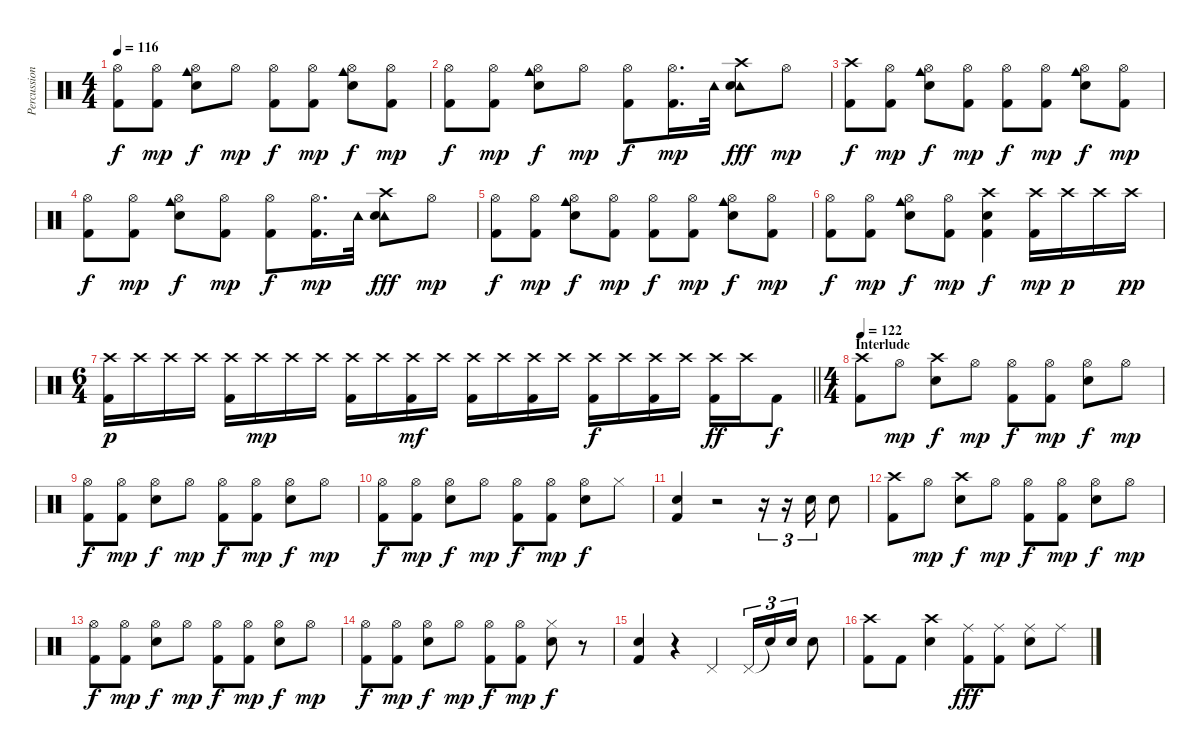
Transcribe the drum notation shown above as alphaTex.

\track ("Percussion (Peter)" "Percussion") {instrument percussion}
\staff {score}
\articulation defaults
\ts (4 4)
\tempo 116
\clef neutral
\ks c
("Hi-Hat (open)" "Kick (hit) 2").8{dy f} ("Hi-Hat (open)" "Kick (hit) 2").8{dy mp} ("Cowbell medium (hit)" "Hi-Hat (open)" "Snare (hit) 2").8{dy f} "Hi-Hat (open)".8{dy mp} ("Hi-Hat (open)" "Kick (hit) 2").8{dy f} ("Hi-Hat (open)" "Kick (hit) 2").8{dy mp} ("Cowbell medium (hit)" "Hi-Hat (open)" "Snare (hit) 2").8{dy f} ("Hi-Hat (open)" "Kick (hit) 2").8{dy mp} |
("Hi-Hat (open)" "Kick (hit) 2").8{dy f} ("Hi-Hat (open)" "Kick (hit) 2").8{dy mp} ("Cowbell medium (hit)" "Hi-Hat (open)" "Snare (hit) 2").8{dy f} "Hi-Hat (open)".8{dy mp} ("Hi-Hat (open)" "Kick (hit) 2").8{dy f} ("Hi-Hat (open)" "Kick (hit) 2").16{d dy mp} "Tambourine (hit)".32 ("Crash high (hit)" "Tambourine (hit)" "Snare (hit) 2").8{dy fff} "Hi-Hat (open)".8{dy mp} |
("Crash high (hit)" "Kick (hit) 2").8{dy f} ("Hi-Hat (open)" "Kick (hit) 2").8{dy mp} ("Cowbell medium (hit)" "Hi-Hat (open)" "Snare (hit) 2").8{dy f} ("Hi-Hat (open)" "Kick (hit) 2").8{dy mp} ("Hi-Hat (open)" "Kick (hit) 2").8{dy f} ("Hi-Hat (open)" "Kick (hit) 2").8{dy mp} ("Cowbell medium (hit)" "Hi-Hat (open)" "Snare (hit) 2").8{dy f} ("Hi-Hat (open)" "Kick (hit) 2").8{dy mp} |
("Hi-Hat (open)" "Kick (hit) 2").8{dy f} ("Hi-Hat (open)" "Kick (hit) 2").8{dy mp} ("Cowbell medium (hit)" "Hi-Hat (open)" "Snare (hit) 2").8{dy f} ("Hi-Hat (open)" "Kick (hit) 2").8{dy mp} ("Hi-Hat (open)" "Kick (hit) 2").8{dy f} ("Hi-Hat (open)" "Kick (hit) 2").16{d dy mp} "Tambourine (hit)".32 ("Crash high (hit)" "Tambourine (hit)" "Snare (hit) 2").8{dy fff} "Hi-Hat (open)".8{dy mp} |
("Hi-Hat (open)" "Kick (hit) 2").8{dy f} ("Hi-Hat (open)" "Kick (hit) 2").8{dy mp} ("Cowbell medium (hit)" "Hi-Hat (open)" "Snare (hit) 2").8{dy f} ("Hi-Hat (open)" "Kick (hit) 2").8{dy mp} ("Hi-Hat (open)" "Kick (hit) 2").8{dy f} ("Hi-Hat (open)" "Kick (hit) 2").8{dy mp} ("Cowbell medium (hit)" "Hi-Hat (open)" "Snare (hit) 2").8{dy f} ("Hi-Hat (open)" "Kick (hit) 2").8{dy mp} |
("Hi-Hat (open)" "Kick (hit) 2").8{dy f} ("Hi-Hat (open)" "Kick (hit) 2").8{dy mp} ("Cowbell medium (hit)" "Hi-Hat (open)" "Snare (hit) 2").8{dy f} ("Hi-Hat (open)" "Kick (hit) 2").8{dy mp} ("Crash high (hit)" "Snare (hit) 2" "Kick (hit) 2").4{dy f} ("Crash high (hit)" "Kick (hit) 2").16{dy mp} "Crash high (hit)".16{dy p} "Crash high (hit)".16 "Crash high (hit)".16{dy pp} |
\ts (6 4)
\barLineRight lightlight
("Crash high (hit)" "Kick (hit) 2").16{dy p} "Crash high (hit)".16 "Crash high (hit)".16 "Crash high (hit)".16 ("Crash high (hit)" "Kick (hit) 2").16 "Crash high (hit)".16{dy mp} "Crash high (hit)".16 "Crash high (hit)".16 ("Crash high (hit)" "Kick (hit) 2").16 "Crash high (hit)".16 ("Crash high (hit)" "Kick (hit) 2").16{dy mf} "Crash high (hit)".16 ("Crash high (hit)" "Kick (hit) 2").16 "Crash high (hit)".16 ("Crash high (hit)" "Kick (hit) 2").16 "Crash high (hit)".16 ("Crash high (hit)" "Kick (hit) 2").16{dy f} "Crash high (hit)".16 ("Crash high (hit)" "Kick (hit) 2").16 "Crash high (hit)".16 ("Crash high (hit)" "Kick (hit) 2").16{dy ff} "Crash high (hit)".16 "Kick (hit) 2".8{dy f} |
\ts (4 4)
\section ("" "Interlude")
\tempo 122
("Crash high (hit)" "Kick (hit) 2").8 "Hi-Hat (open)".8{dy mp} ("Crash high (hit)" "Snare (hit) 2").8{dy f} "Hi-Hat (open)".8{dy mp} ("Hi-Hat (open)" "Kick (hit) 2").8{dy f} ("Hi-Hat (open)" "Kick (hit) 2").8{dy mp} ("Hi-Hat (open)" "Snare (hit) 2").8{dy f} "Hi-Hat (open)".8{dy mp} |
("Hi-Hat (open)" "Kick (hit) 2").8{dy f} ("Hi-Hat (open)" "Kick (hit) 2").8{dy mp} ("Hi-Hat (open)" "Snare (hit) 2").8{dy f} "Hi-Hat (open)".8{dy mp} ("Hi-Hat (open)" "Kick (hit) 2").8{dy f} ("Hi-Hat (open)" "Kick (hit) 2").8{dy mp} ("Hi-Hat (open)" "Snare (hit) 2").8{dy f} "Hi-Hat (open)".8{dy mp} |
("Hi-Hat (open)" "Kick (hit) 2").8{dy f} ("Hi-Hat (open)" "Kick (hit) 2").8{dy mp} ("Hi-Hat (open)" "Snare (hit) 2").8{dy f} "Hi-Hat (open)".8{dy mp} ("Hi-Hat (open)" "Kick (hit) 2").8{dy f} ("Hi-Hat (open)" "Kick (hit) 2").8{dy mp} ("Hi-Hat (open)" "Snare (hit) 2").8{dy f} "Hi-Hat (closed)".8 |
("Snare (hit) 2" "Kick (hit) 2").4 r.2 r.16{tu (3 2)} r.16{tu (3 2)} "Snare (hit) 2".16{tu (3 2)} "Snare (hit) 2".8 |
("Crash high (hit)" "Kick (hit) 2").8 "Hi-Hat (open)".8{dy mp} ("Crash high (hit)" "Snare (hit) 2").8{dy f} "Hi-Hat (open)".8{dy mp} ("Hi-Hat (open)" "Kick (hit) 2").8{dy f} ("Hi-Hat (open)" "Kick (hit) 2").8{dy mp} ("Hi-Hat (open)" "Snare (hit) 2").8{dy f} "Hi-Hat (open)".8{dy mp} |
("Hi-Hat (open)" "Kick (hit) 2").8{dy f} ("Hi-Hat (open)" "Kick (hit) 2").8{dy mp} ("Hi-Hat (open)" "Snare (hit) 2").8{dy f} "Hi-Hat (open)".8{dy mp} ("Hi-Hat (open)" "Kick (hit) 2").8{dy f} ("Hi-Hat (open)" "Kick (hit) 2").8{dy mp} ("Hi-Hat (open)" "Snare (hit) 2").8{dy f} "Hi-Hat (open)".8{dy mp} |
("Hi-Hat (open)" "Kick (hit) 2").8{dy f} ("Hi-Hat (open)" "Kick (hit) 2").8{dy mp} ("Hi-Hat (open)" "Snare (hit) 2").8{dy f} "Hi-Hat (open)".8{dy mp} ("Hi-Hat (open)" "Kick (hit) 2").8{dy f} ("Hi-Hat (open)" "Kick (hit) 2").8{dy mp} ("Hi-Hat (closed)" "Snare (hit) 2").8{dy f} r.8 |
("Snare (hit) 2" "Kick (hit) 2").4 r.4 "Pedal Hi-Hat (hit)".4 "Pedal Hi-Hat (hit)".16{tu (3 2)} "Snare (hit)"{t}.16{tu (3 2)} "Snare (hit) 2".16{tu (3 2)} "Snare (hit) 2".8 |
("Crash high (hit)" "Kick (hit) 2").8 "Kick (hit) 2".8 ("Crash high (hit)" "Snare (hit) 2").4 ("Ride (middle)" "Kick (hit) 2").8{dy fff} ("Ride (middle)" "Kick (hit) 2").8 ("Ride (middle)" "Snare (hit) 2").8 "Ride (middle)".8
